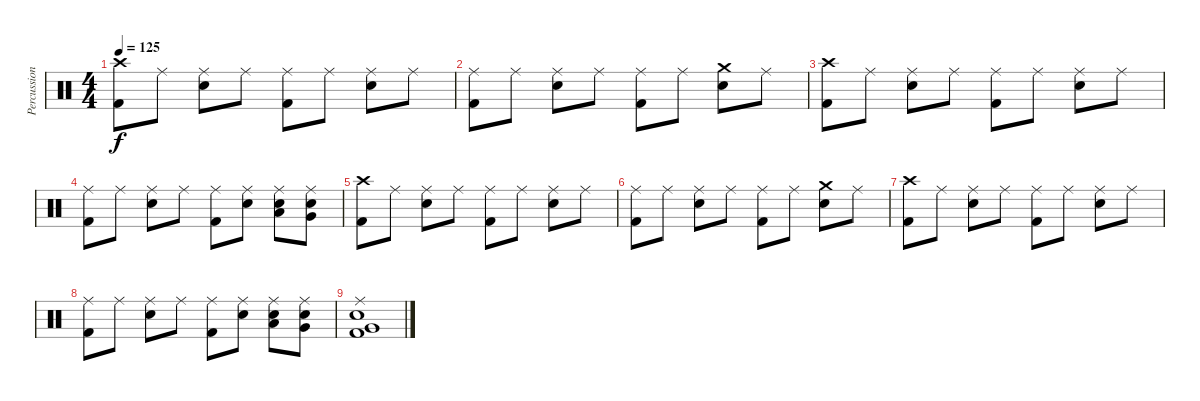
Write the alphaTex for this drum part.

\track ("Percussion" "Percussion") {instrument percussion}
\staff {score}
\articulation defaults
\ts (4 4)
\tempo 125
\clef neutral
\ks c
("Crash high (hit)" "Kick (hit) 2").8{dy f} "Ride (middle)".8 ("Ride (middle)" "Snare (hit) 2").8 "Ride (middle)".8 ("Ride (middle)" "Kick (hit) 2").8 "Ride (middle)".8 ("Ride (middle)" "Snare (hit) 2").8 "Ride (middle)".8 |
("Ride (middle)" "Kick (hit) 2").8 "Ride (middle)".8 ("Ride (middle)" "Snare (hit) 2").8 "Ride (middle)".8 ("Ride (middle)" "Kick (hit) 2").8 "Ride (middle)".8 ("Crash medium (hit)" "Snare (hit) 2").8 "Ride (middle)".8 |
("Crash high (hit)" "Kick (hit) 2").8 "Ride (middle)".8 ("Ride (middle)" "Snare (hit) 2").8 "Ride (middle)".8 ("Ride (middle)" "Kick (hit) 2").8 "Ride (middle)".8 ("Ride (middle)" "Snare (hit) 2").8 "Ride (middle)".8 |
("Ride (middle)" "Kick (hit) 2").8 "Ride (middle)".8 ("Ride (middle)" "Snare (hit) 2").8 "Ride (middle)".8 ("Ride (middle)" "Kick (hit) 2").8 ("Ride (middle)" "Snare (hit) 2").8 ("Ride (middle)" "Low Tom (hit)" "Snare (hit) 2").8 ("Ride (middle)" "Very Low Tom (hit)" "Snare (hit) 2").8 |
("Crash high (hit)" "Kick (hit) 2").8 "Ride (middle)".8 ("Ride (middle)" "Snare (hit) 2").8 "Ride (middle)".8 ("Ride (middle)" "Kick (hit) 2").8 "Ride (middle)".8 ("Ride (middle)" "Snare (hit) 2").8 "Ride (middle)".8 |
("Ride (middle)" "Kick (hit) 2").8 "Ride (middle)".8 ("Ride (middle)" "Snare (hit) 2").8 "Ride (middle)".8 ("Ride (middle)" "Kick (hit) 2").8 "Ride (middle)".8 ("Crash medium (hit)" "Snare (hit) 2").8 "Ride (middle)".8 |
("Crash high (hit)" "Kick (hit) 2").8 "Ride (middle)".8 ("Ride (middle)" "Snare (hit) 2").8 "Ride (middle)".8 ("Ride (middle)" "Kick (hit) 2").8 "Ride (middle)".8 ("Ride (middle)" "Snare (hit) 2").8 "Ride (middle)".8 |
("Ride (middle)" "Kick (hit) 2").8 "Ride (middle)".8 ("Ride (middle)" "Snare (hit) 2").8 "Ride (middle)".8 ("Ride (middle)" "Kick (hit) 2").8 ("Ride (middle)" "Snare (hit) 2").8 ("Ride (middle)" "Low Tom (hit)" "Snare (hit) 2").8 ("Ride (middle)" "Very Low Tom (hit)" "Snare (hit) 2").8 |
("Ride (middle)" "Very Low Tom (hit)" "Snare (hit) 2" "Kick (hit) 2").1
